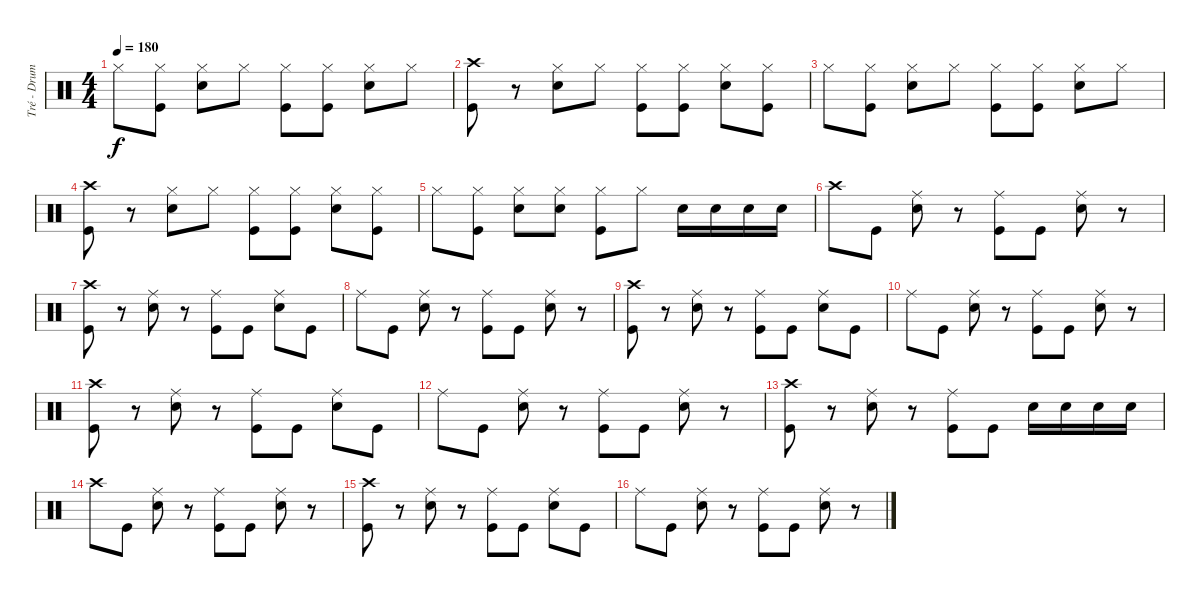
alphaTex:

\track ("Tré - Drums" "Tré - Drum") {instrument percussion}
\staff {score}
\articulation defaults
\ts (4 4)
\tempo 180
\clef neutral
\ks c "Hi-Hat (closed)".8{dy f}
("Hi-Hat (closed)" "Kick (hit)").8 ("Hi-Hat (closed)" "Electric Snare (hit)").8 "Hi-Hat (closed)".8 ("Hi-Hat (closed)" "Kick (hit)").8 ("Hi-Hat (closed)" "Kick (hit)").8 ("Hi-Hat (closed)" "Electric Snare (hit)").8 "Hi-Hat (closed)".8 |
("Crash high (hit)" "Kick (hit)").8 r.8 ("Hi-Hat (closed)" "Electric Snare (hit)").8 "Hi-Hat (closed)".8 ("Hi-Hat (closed)" "Kick (hit)").8 ("Hi-Hat (closed)" "Kick (hit)").8 ("Hi-Hat (closed)" "Electric Snare (hit)").8 ("Hi-Hat (closed)" "Kick (hit)").8 |
"Hi-Hat (closed)".8 ("Hi-Hat (closed)" "Kick (hit)").8 ("Hi-Hat (closed)" "Electric Snare (hit)").8 "Hi-Hat (closed)".8 ("Hi-Hat (closed)" "Kick (hit)").8 ("Hi-Hat (closed)" "Kick (hit)").8 ("Hi-Hat (closed)" "Electric Snare (hit)").8 "Hi-Hat (closed)".8 |
("Crash high (hit)" "Kick (hit)").8 r.8 ("Hi-Hat (closed)" "Electric Snare (hit)").8 "Hi-Hat (closed)".8 ("Hi-Hat (closed)" "Kick (hit)").8 ("Hi-Hat (closed)" "Kick (hit)").8 ("Hi-Hat (closed)" "Electric Snare (hit)").8 ("Hi-Hat (closed)" "Kick (hit)").8 |
"Hi-Hat (closed)".8 ("Hi-Hat (closed)" "Kick (hit)").8 ("Hi-Hat (closed)" "Electric Snare (hit)").8 ("Hi-Hat (closed)" "Electric Snare (hit)").8 ("Hi-Hat (closed)" "Kick (hit)").8 "Hi-Hat (closed)".8 "Electric Snare (hit)".16 "Electric Snare (hit)".16 "Electric Snare (hit)".16 "Electric Snare (hit)".16 |
"Crash high (hit)".8 "Kick (hit)".8 ("Ride (middle)" "Electric Snare (hit)").8 r.8 ("Ride (middle)" "Kick (hit)").8 "Kick (hit)".8 ("Ride (middle)" "Electric Snare (hit)").8 r.8 |
("Crash high (hit)" "Kick (hit)").8 r.8 ("Ride (middle)" "Electric Snare (hit)").8 r.8 ("Ride (middle)" "Kick (hit)").8 "Kick (hit)".8 ("Ride (middle)" "Electric Snare (hit)").8 "Kick (hit)".8 |
"Ride (middle)".8 "Kick (hit)".8 ("Ride (middle)" "Electric Snare (hit)").8 r.8 ("Ride (middle)" "Kick (hit)").8 "Kick (hit)".8 ("Ride (middle)" "Electric Snare (hit)").8 r.8 |
("Crash high (hit)" "Kick (hit)").8 r.8 ("Ride (middle)" "Electric Snare (hit)").8 r.8 ("Ride (middle)" "Kick (hit)").8 "Kick (hit)".8 ("Ride (middle)" "Electric Snare (hit)").8 "Kick (hit)".8 |
"Ride (middle)".8 "Kick (hit)".8 ("Ride (middle)" "Electric Snare (hit)").8 r.8 ("Ride (middle)" "Kick (hit)").8 "Kick (hit)".8 ("Ride (middle)" "Electric Snare (hit)").8 r.8 |
("Crash high (hit)" "Kick (hit)").8 r.8 ("Ride (middle)" "Electric Snare (hit)").8 r.8 ("Ride (middle)" "Kick (hit)").8 "Kick (hit)".8 ("Ride (middle)" "Electric Snare (hit)").8 "Kick (hit)".8 |
"Ride (middle)".8 "Kick (hit)".8 ("Ride (middle)" "Electric Snare (hit)").8 r.8 ("Ride (middle)" "Kick (hit)").8 "Kick (hit)".8 ("Ride (middle)" "Electric Snare (hit)").8 r.8 |
("Crash high (hit)" "Kick (hit)").8 r.8 ("Ride (middle)" "Electric Snare (hit)").8 r.8 ("Ride (middle)" "Kick (hit)").8 "Kick (hit)".8 "Electric Snare (hit)".16 "Electric Snare (hit)".16 "Electric Snare (hit)".16 "Electric Snare (hit)".16 |
"Crash high (hit)".8 "Kick (hit)".8 ("Ride (middle)" "Electric Snare (hit)").8 r.8 ("Ride (middle)" "Kick (hit)").8 "Kick (hit)".8 ("Ride (middle)" "Electric Snare (hit)").8 r.8 |
("Crash high (hit)" "Kick (hit)").8 r.8 ("Ride (middle)" "Electric Snare (hit)").8 r.8 ("Ride (middle)" "Kick (hit)").8 "Kick (hit)".8 ("Ride (middle)" "Electric Snare (hit)").8 "Kick (hit)".8 |
"Ride (middle)".8 "Kick (hit)".8 ("Ride (middle)" "Electric Snare (hit)").8 r.8 ("Ride (middle)" "Kick (hit)").8 "Kick (hit)".8 ("Ride (middle)" "Electric Snare (hit)").8 r.8
